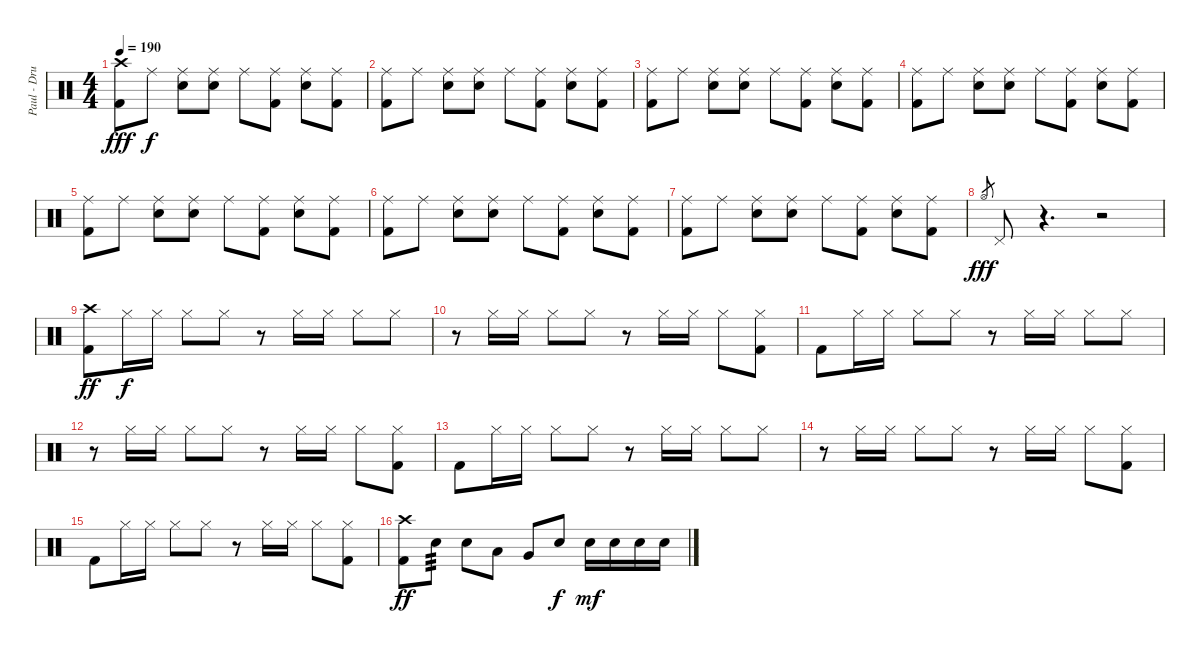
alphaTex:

\track ("Paul - Drums" "Paul - Dru") {instrument percussion}
\staff {score}
\articulation defaults
\ts (4 4)
\tempo 190
\clef neutral
\ks c
("Crash high (hit)" "Kick (hit) 2").8{dy fff} "Ride (middle)".8{dy f} ("Ride (middle)" "Electric Snare (hit)").8 ("Ride (middle)" "Electric Snare (hit)").8 "Ride (middle)".8 ("Ride (middle)" "Kick (hit) 2").8 ("Ride (middle)" "Electric Snare (hit)").8 ("Ride (middle)" "Kick (hit) 2").8 |
("Ride (middle)" "Kick (hit) 2").8 "Ride (middle)".8 ("Ride (middle)" "Electric Snare (hit)").8 ("Ride (middle)" "Electric Snare (hit)").8 "Ride (middle)".8 ("Ride (middle)" "Kick (hit) 2").8 ("Ride (middle)" "Electric Snare (hit)").8 ("Ride (middle)" "Kick (hit) 2").8 |
("Ride (middle)" "Kick (hit) 2").8 "Ride (middle)".8 ("Ride (middle)" "Electric Snare (hit)").8 ("Ride (middle)" "Electric Snare (hit)").8 "Ride (middle)".8 ("Ride (middle)" "Kick (hit) 2").8 ("Ride (middle)" "Electric Snare (hit)").8 ("Ride (middle)" "Kick (hit) 2").8 |
("Ride (middle)" "Kick (hit) 2").8 "Ride (middle)".8 ("Ride (middle)" "Electric Snare (hit)").8 ("Ride (middle)" "Electric Snare (hit)").8 "Ride (middle)".8 ("Ride (middle)" "Kick (hit) 2").8 ("Ride (middle)" "Electric Snare (hit)").8 ("Ride (middle)" "Kick (hit) 2").8 |
("Ride (middle)" "Kick (hit) 2").8 "Ride (middle)".8 ("Ride (middle)" "Electric Snare (hit)").8 ("Ride (middle)" "Electric Snare (hit)").8 "Ride (middle)".8 ("Ride (middle)" "Kick (hit) 2").8 ("Ride (middle)" "Electric Snare (hit)").8 ("Ride (middle)" "Kick (hit) 2").8 |
("Ride (middle)" "Kick (hit) 2").8 "Ride (middle)".8 ("Ride (middle)" "Electric Snare (hit)").8 ("Ride (middle)" "Electric Snare (hit)").8 "Ride (middle)".8 ("Ride (middle)" "Kick (hit) 2").8 ("Ride (middle)" "Electric Snare (hit)").8 ("Ride (middle)" "Kick (hit) 2").8 |
("Ride (middle)" "Kick (hit) 2").8 "Ride (middle)".8 ("Ride (middle)" "Electric Snare (hit)").8 ("Ride (middle)" "Electric Snare (hit)").8 "Ride (middle)".8 ("Ride (middle)" "Kick (hit) 2").8 ("Ride (middle)" "Electric Snare (hit)").8 ("Ride (middle)" "Kick (hit) 2").8 |
"Hi-Hat (open)".8{gr dy fff} "Pedal Hi-Hat (hit)".8 r.4{d} r.2 |
("Crash high (hit)" "Kick (hit) 2").8{dy ff} "Hi-Hat (closed)".16{dy f} "Hi-Hat (closed)".16 "Hi-Hat (closed)".8 "Hi-Hat (closed)".8 r.8 "Hi-Hat (closed)".16 "Hi-Hat (closed)".16 "Hi-Hat (closed)".8 "Hi-Hat (closed)".8 |
r.8 "Hi-Hat (closed)".16 "Hi-Hat (closed)".16 "Hi-Hat (closed)".8 "Hi-Hat (closed)".8 r.8 "Hi-Hat (closed)".16 "Hi-Hat (closed)".16 "Hi-Hat (closed)".8 ("Hi-Hat (closed)" "Kick (hit) 2").8 |
"Kick (hit) 2".8 "Hi-Hat (closed)".16 "Hi-Hat (closed)".16 "Hi-Hat (closed)".8 "Hi-Hat (closed)".8 r.8 "Hi-Hat (closed)".16 "Hi-Hat (closed)".16 "Hi-Hat (closed)".8 "Hi-Hat (closed)".8 |
r.8 "Hi-Hat (closed)".16 "Hi-Hat (closed)".16 "Hi-Hat (closed)".8 "Hi-Hat (closed)".8 r.8 "Hi-Hat (closed)".16 "Hi-Hat (closed)".16 "Hi-Hat (closed)".8 ("Hi-Hat (closed)" "Kick (hit) 2").8 |
"Kick (hit) 2".8 "Hi-Hat (closed)".16 "Hi-Hat (closed)".16 "Hi-Hat (closed)".8 "Hi-Hat (closed)".8 r.8 "Hi-Hat (closed)".16 "Hi-Hat (closed)".16 "Hi-Hat (closed)".8 "Hi-Hat (closed)".8 |
r.8 "Hi-Hat (closed)".16 "Hi-Hat (closed)".16 "Hi-Hat (closed)".8 "Hi-Hat (closed)".8 r.8 "Hi-Hat (closed)".16 "Hi-Hat (closed)".16 "Hi-Hat (closed)".8 ("Hi-Hat (closed)" "Kick (hit) 2").8 |
"Kick (hit) 2".8 "Hi-Hat (closed)".16 "Hi-Hat (closed)".16 "Hi-Hat (closed)".8 "Hi-Hat (closed)".8 r.8 "Hi-Hat (closed)".16 "Hi-Hat (closed)".16 "Hi-Hat (closed)".8 ("Hi-Hat (closed)" "Kick (hit) 2").8 |
("Crash high (hit)" "Kick (hit) 2").8{dy ff} "Electric Snare (hit)".8{tp 3} "Electric Snare (hit)".8 "Low Tom (hit)".8 "Very Low Tom (hit)".8 "Electric Snare (hit)".8{dy f} "Electric Snare (hit)".16{dy mf} "Electric Snare (hit)".16 "Electric Snare (hit)".16 "Electric Snare (hit)".16
